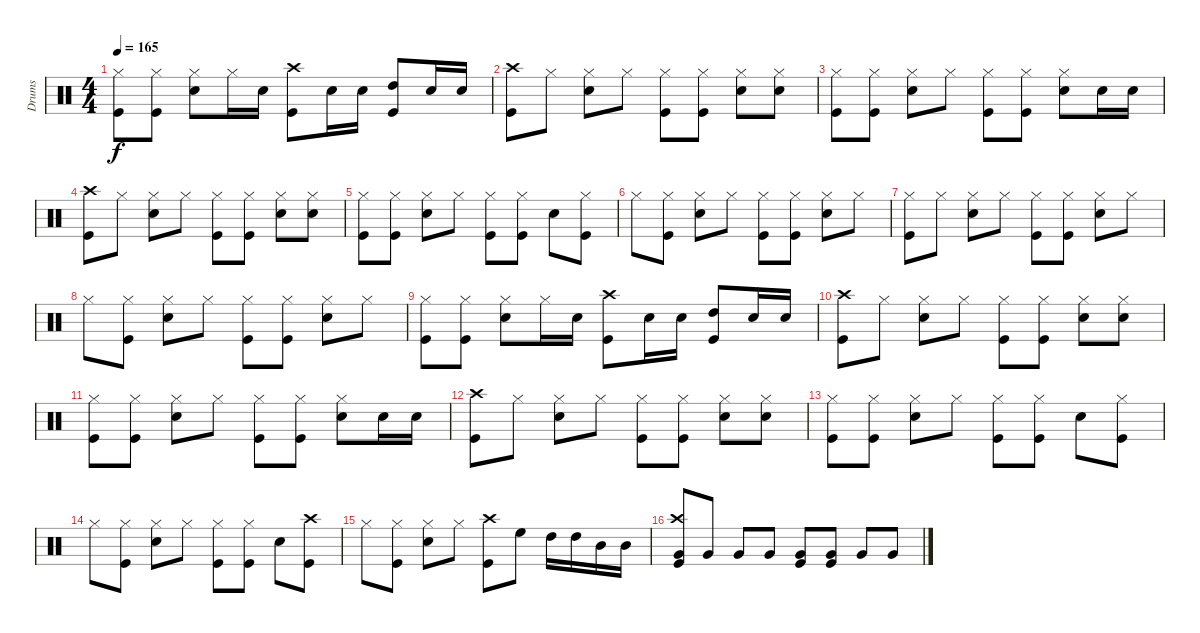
\track ("Drums" "Drums") {instrument percussion}
\staff {score}
\articulation defaults
\ts (4 4)
\tempo 165
\clef neutral
\ks c
("Hi-Hat (closed)" "Kick (hit)").8{dy f} ("Hi-Hat (closed)" "Kick (hit)").8 ("Hi-Hat (closed)" "Snare (hit) 2").8 "Hi-Hat (closed)".16 "Snare (hit) 2".16 ("Crash high (hit)" "Kick (hit)").8 "Snare (hit) 2".16 "Snare (hit) 2".16 ("High Tom (hit)" "Kick (hit)").8 "Snare (hit) 2".16 "Snare (hit) 2".16 |
("Crash high (hit)" "Kick (hit)").8 "Hi-Hat (closed)".8 ("Hi-Hat (closed)" "Snare (hit) 2").8 "Hi-Hat (closed)".8 ("Hi-Hat (closed)" "Kick (hit)").8 ("Hi-Hat (closed)" "Kick (hit)").8 ("Hi-Hat (closed)" "Snare (hit) 2").8 ("Hi-Hat (closed)" "Snare (hit) 2").8 |
("Hi-Hat (closed)" "Kick (hit)").8 ("Hi-Hat (closed)" "Kick (hit)").8 ("Hi-Hat (closed)" "Snare (hit) 2").8 "Hi-Hat (closed)".8 ("Hi-Hat (closed)" "Kick (hit)").8 ("Hi-Hat (closed)" "Kick (hit)").8 ("Hi-Hat (closed)" "Snare (hit) 2").8 "Snare (hit) 2".16 "Snare (hit) 2".16 |
("Crash high (hit)" "Kick (hit)").8 "Hi-Hat (closed)".8 ("Hi-Hat (closed)" "Snare (hit) 2").8 "Hi-Hat (closed)".8 ("Hi-Hat (closed)" "Kick (hit)").8 ("Hi-Hat (closed)" "Kick (hit)").8 ("Hi-Hat (closed)" "Snare (hit) 2").8 ("Hi-Hat (closed)" "Snare (hit) 2").8 |
("Hi-Hat (closed)" "Kick (hit)").8 ("Hi-Hat (closed)" "Kick (hit)").8 ("Hi-Hat (closed)" "Snare (hit) 2").8 "Hi-Hat (closed)".8 ("Hi-Hat (closed)" "Kick (hit)").8 ("Hi-Hat (closed)" "Kick (hit)").8 "Snare (hit) 2".8 ("Hi-Hat (closed)" "Kick (hit)").8 |
"Hi-Hat (closed)".8 ("Hi-Hat (closed)" "Kick (hit)").8 ("Hi-Hat (closed)" "Snare (hit) 2").8 "Hi-Hat (closed)".8 ("Hi-Hat (closed)" "Kick (hit)").8 ("Hi-Hat (closed)" "Kick (hit)").8 ("Hi-Hat (closed)" "Snare (hit) 2").8 "Hi-Hat (closed)".8 |
("Hi-Hat (closed)" "Kick (hit)").8 "Hi-Hat (closed)".8 ("Hi-Hat (closed)" "Snare (hit) 2").8 "Hi-Hat (closed)".8 ("Hi-Hat (closed)" "Kick (hit)").8 ("Hi-Hat (closed)" "Kick (hit)").8 ("Hi-Hat (closed)" "Snare (hit) 2").8 "Hi-Hat (closed)".8 |
"Hi-Hat (closed)".8 ("Hi-Hat (closed)" "Kick (hit)").8 ("Hi-Hat (closed)" "Snare (hit) 2").8 "Hi-Hat (closed)".8 ("Hi-Hat (closed)" "Kick (hit)").8 ("Hi-Hat (closed)" "Kick (hit)").8 ("Hi-Hat (closed)" "Snare (hit) 2").8 "Hi-Hat (closed)".8 |
("Hi-Hat (closed)" "Kick (hit)").8 ("Hi-Hat (closed)" "Kick (hit)").8 ("Hi-Hat (closed)" "Snare (hit) 2").8 "Hi-Hat (closed)".16 "Snare (hit) 2".16 ("Crash high (hit)" "Kick (hit)").8 "Snare (hit) 2".16 "Snare (hit) 2".16 ("High Tom (hit)" "Kick (hit)").8 "Snare (hit) 2".16 "Snare (hit) 2".16 |
("Crash high (hit)" "Kick (hit)").8 "Hi-Hat (closed)".8 ("Hi-Hat (closed)" "Snare (hit) 2").8 "Hi-Hat (closed)".8 ("Hi-Hat (closed)" "Kick (hit)").8 ("Hi-Hat (closed)" "Kick (hit)").8 ("Hi-Hat (closed)" "Snare (hit) 2").8 ("Hi-Hat (closed)" "Snare (hit) 2").8 |
("Hi-Hat (closed)" "Kick (hit)").8 ("Hi-Hat (closed)" "Kick (hit)").8 ("Hi-Hat (closed)" "Snare (hit) 2").8 "Hi-Hat (closed)".8 ("Hi-Hat (closed)" "Kick (hit)").8 ("Hi-Hat (closed)" "Kick (hit)").8 ("Hi-Hat (closed)" "Snare (hit) 2").8 "Snare (hit) 2".16 "Snare (hit) 2".16 |
("Crash high (hit)" "Kick (hit)").8 "Hi-Hat (closed)".8 ("Hi-Hat (closed)" "Snare (hit) 2").8 "Hi-Hat (closed)".8 ("Hi-Hat (closed)" "Kick (hit)").8 ("Hi-Hat (closed)" "Kick (hit)").8 ("Hi-Hat (closed)" "Snare (hit) 2").8 ("Hi-Hat (closed)" "Snare (hit) 2").8 |
("Hi-Hat (closed)" "Kick (hit)").8 ("Hi-Hat (closed)" "Kick (hit)").8 ("Hi-Hat (closed)" "Snare (hit) 2").8 "Hi-Hat (closed)".8 ("Hi-Hat (closed)" "Kick (hit)").8 ("Hi-Hat (closed)" "Kick (hit)").8 "Snare (hit) 2".8 ("Hi-Hat (closed)" "Kick (hit)").8 |
"Hi-Hat (closed)".8 ("Hi-Hat (closed)" "Kick (hit)").8 ("Hi-Hat (closed)" "Snare (hit) 2").8 "Hi-Hat (closed)".8 ("Hi-Hat (closed)" "Kick (hit)").8 ("Hi-Hat (closed)" "Kick (hit)").8 "Snare (hit) 2".8 ("Crash high (hit)" "Kick (hit)").8 |
"Hi-Hat (closed)".8 ("Hi-Hat (closed)" "Kick (hit)").8 ("Hi-Hat (closed)" "Snare (hit) 2").8 "Hi-Hat (closed)".8 ("Crash high (hit)" "Kick (hit)").8 "High Floor Tom (hit)".8 "High Tom (hit)".16 "High Tom (hit)".16 "Mid Tom (hit)".16 "Mid Tom (hit)".16 |
("Crash high (hit)" "Very Low Tom (hit)" "Kick (hit)").8 "Very Low Tom (hit)".8 "Very Low Tom (hit)".8 "Very Low Tom (hit)".8 ("Very Low Tom (hit)" "Kick (hit)").8 ("Very Low Tom (hit)" "Kick (hit)").8 "Very Low Tom (hit)".8 "Very Low Tom (hit)".8
